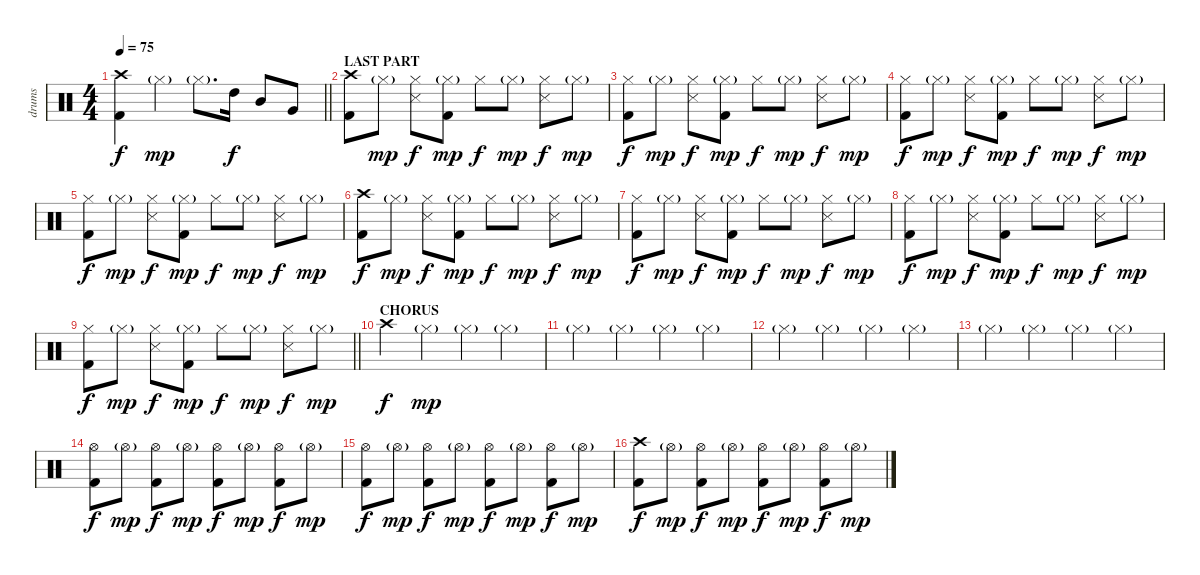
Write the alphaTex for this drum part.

\track ("drums" "drums") {instrument percussion}
\staff
\articulation defaults
\ts (4 4)
\tempo 75
\clef neutral
\barLineRight lightlight
\ks c
("Crash high (hit)" "Kick (hit) 2").4{dy f} "Hi-Hat (closed)"{g}.4{dy mp} "Hi-Hat (closed)"{g}.8{d} "High Tom (hit)".16{dy f} "Mid Tom (hit)".8 "Very Low Tom (hit)".8 |
\section ("" "LAST PART")
("Crash high (hit)" "Kick (hit) 2").8 "Hi-Hat (closed)"{g}.8{dy mp} ("Hi-Hat (closed)" "Snare (side stick) 3").8{dy f} ("Hi-Hat (closed)"{g} "Kick (hit) 2").8{dy mp} "Hi-Hat (closed)".8{dy f} "Hi-Hat (closed)"{g}.8{dy mp} ("Hi-Hat (closed)" "Snare (side stick) 3").8{dy f} "Hi-Hat (closed)"{g}.8{dy mp} |
("Hi-Hat (closed)" "Kick (hit) 2").8{dy f} "Hi-Hat (closed)"{g}.8{dy mp} ("Hi-Hat (closed)" "Snare (side stick) 3").8{dy f} ("Hi-Hat (closed)"{g} "Kick (hit) 2").8{dy mp} "Hi-Hat (closed)".8{dy f} "Hi-Hat (closed)"{g}.8{dy mp} ("Hi-Hat (closed)" "Snare (side stick) 3").8{dy f} "Hi-Hat (closed)"{g}.8{dy mp} |
("Hi-Hat (closed)" "Kick (hit) 2").8{dy f} "Hi-Hat (closed)"{g}.8{dy mp} ("Hi-Hat (closed)" "Snare (side stick) 3").8{dy f} ("Hi-Hat (closed)"{g} "Kick (hit) 2").8{dy mp} "Hi-Hat (closed)".8{dy f} "Hi-Hat (closed)"{g}.8{dy mp} ("Hi-Hat (closed)" "Snare (side stick) 3").8{dy f} "Hi-Hat (closed)"{g}.8{dy mp} |
("Hi-Hat (closed)" "Kick (hit) 2").8{dy f} "Hi-Hat (closed)"{g}.8{dy mp} ("Hi-Hat (closed)" "Snare (side stick) 3").8{dy f} ("Hi-Hat (closed)"{g} "Kick (hit) 2").8{dy mp} "Hi-Hat (closed)".8{dy f} "Hi-Hat (closed)"{g}.8{dy mp} ("Hi-Hat (closed)" "Snare (side stick) 3").8{dy f} "Hi-Hat (closed)"{g}.8{dy mp} |
("Crash high (hit)" "Kick (hit) 2").8{dy f} "Hi-Hat (closed)"{g}.8{dy mp} ("Hi-Hat (closed)" "Snare (side stick) 3").8{dy f} ("Hi-Hat (closed)"{g} "Kick (hit) 2").8{dy mp} "Hi-Hat (closed)".8{dy f} "Hi-Hat (closed)"{g}.8{dy mp} ("Hi-Hat (closed)" "Snare (side stick) 3").8{dy f} "Hi-Hat (closed)"{g}.8{dy mp} |
("Hi-Hat (closed)" "Kick (hit) 2").8{dy f} "Hi-Hat (closed)"{g}.8{dy mp} ("Hi-Hat (closed)" "Snare (side stick) 3").8{dy f} ("Hi-Hat (closed)"{g} "Kick (hit) 2").8{dy mp} "Hi-Hat (closed)".8{dy f} "Hi-Hat (closed)"{g}.8{dy mp} ("Hi-Hat (closed)" "Snare (side stick) 3").8{dy f} "Hi-Hat (closed)"{g}.8{dy mp} |
("Hi-Hat (closed)" "Kick (hit) 2").8{dy f} "Hi-Hat (closed)"{g}.8{dy mp} ("Hi-Hat (closed)" "Snare (side stick) 3").8{dy f} ("Hi-Hat (closed)"{g} "Kick (hit) 2").8{dy mp} "Hi-Hat (closed)".8{dy f} "Hi-Hat (closed)"{g}.8{dy mp} ("Hi-Hat (closed)" "Snare (side stick) 3").8{dy f} "Hi-Hat (closed)"{g}.8{dy mp} |
\barLineRight lightlight
("Hi-Hat (closed)" "Kick (hit) 2").8{dy f} "Hi-Hat (closed)"{g}.8{dy mp} ("Hi-Hat (closed)" "Snare (side stick) 3").8{dy f} ("Hi-Hat (closed)"{g} "Kick (hit) 2").8{dy mp} "Hi-Hat (closed)".8{dy f} "Hi-Hat (closed)"{g}.8{dy mp} ("Hi-Hat (closed)" "Snare (side stick) 3").8{dy f} "Hi-Hat (closed)"{g}.8{dy mp} |
\section ("" "CHORUS")
"Crash high (hit)".4{dy f} "Hi-Hat (closed)"{g}.4{dy mp} "Hi-Hat (closed)"{g}.4 "Hi-Hat (closed)"{g}.4 |
"Hi-Hat (closed)"{g}.4 "Hi-Hat (closed)"{g}.4 "Hi-Hat (closed)"{g}.4 "Hi-Hat (closed)"{g}.4 |
"Hi-Hat (closed)"{g}.4 "Hi-Hat (closed)"{g}.4 "Hi-Hat (closed)"{g}.4 "Hi-Hat (closed)"{g}.4 |
"Hi-Hat (closed)"{g}.4 "Hi-Hat (closed)"{g}.4 "Hi-Hat (closed)"{g}.4 "Hi-Hat (closed)"{g}.4 |
("Hi-Hat (open)" "Kick (hit) 2").8{dy f} "Hi-Hat (open)"{g}.8{dy mp} ("Hi-Hat (open)" "Kick (hit) 2").8{dy f} "Hi-Hat (open)"{g}.8{dy mp} ("Hi-Hat (open)" "Kick (hit) 2").8{dy f} "Hi-Hat (open)"{g}.8{dy mp} ("Hi-Hat (open)" "Kick (hit) 2").8{dy f} "Hi-Hat (open)"{g}.8{dy mp} |
("Hi-Hat (open)" "Kick (hit) 2").8{dy f} "Hi-Hat (open)"{g}.8{dy mp} ("Hi-Hat (open)" "Kick (hit) 2").8{dy f} "Hi-Hat (open)"{g}.8{dy mp} ("Hi-Hat (open)" "Kick (hit) 2").8{dy f} "Hi-Hat (open)"{g}.8{dy mp} ("Hi-Hat (open)" "Kick (hit) 2").8{dy f} "Hi-Hat (open)"{g}.8{dy mp} |
("Crash high (hit)" "Kick (hit) 2").8{dy f} "Hi-Hat (open)"{g}.8{dy mp} ("Hi-Hat (open)" "Kick (hit) 2").8{dy f} "Hi-Hat (open)"{g}.8{dy mp} ("Hi-Hat (open)" "Kick (hit) 2").8{dy f} "Hi-Hat (open)"{g}.8{dy mp} ("Hi-Hat (open)" "Kick (hit) 2").8{dy f} "Hi-Hat (open)"{g}.8{dy mp}
